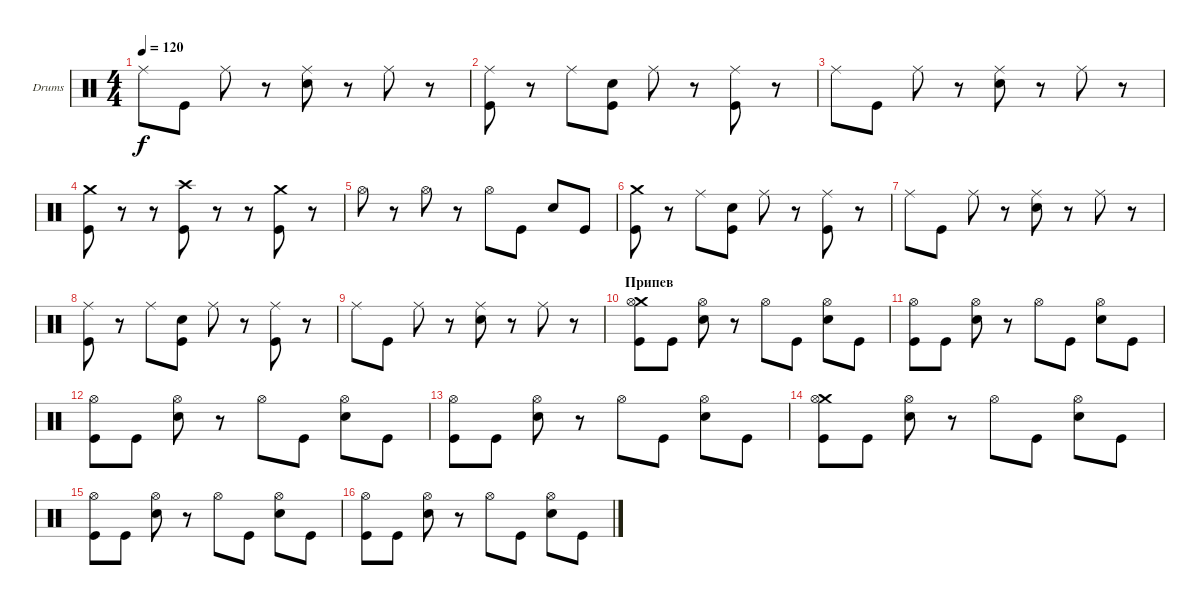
\defaultSystemsLayout 4
\bracketExtendMode groupsimilarinstruments
\firstSystemTrackNameOrientation horizontal
\otherSystemsTrackNameOrientation horizontal
\track ("Drumkit" "Drums") {instrument percussion}
\staff {score}
\articulation defaults
\ts (4 4)
\tempo 120
\clef neutral
\scale
0.333333
\ks c "Ride (middle)".8{dy f} "Kick (hit)".8 "Ride (middle)".8
r.8 ("Ride (middle)" "Snare (hit) 2").8 r.8 "Ride (middle)".8 r.8 |
\scale
0.333333 ("Ride (middle)" "Kick (hit)").8 r.8 "Ride (middle)".8 ("Snare (hit) 2" "Kick (hit)").8 "Ride (middle)".8 r.8 ("Ride (middle)" "Kick (hit)").8 r.8 |
\scale
0.333333 "Ride (middle)".8 "Kick (hit)".8 "Ride (middle)".8 r.8 ("Ride (middle)" "Snare (hit) 2").8 r.8 "Ride (middle)".8 r.8 |
\scale
0.333333 ("Crash medium (hit)" "Kick (hit)").8 r.8 r.8 ("Crash high (hit)" "Kick (hit)").8 r.8 r.8 ("Crash medium (hit)" "Kick (hit)").8 r.8 |
\scale
0.333333 "Hi-Hat (open)".8 r.8 "Hi-Hat (open)".8 r.8 "Hi-Hat (open)".8 "Kick (hit)".8 "Snare (hit) 2".8 "Kick (hit)".8 |
\scale
0.333333 ("Crash medium (hit)" "Kick (hit)").8 r.8 "Ride (middle)".8 ("Snare (hit) 2" "Kick (hit)").8 "Ride (middle)".8 r.8 ("Ride (middle)" "Kick (hit)").8 r.8 |
\scale
0.333333 "Ride (middle)".8 "Kick (hit)".8 "Ride (middle)".8 r.8 ("Ride (middle)" "Snare (hit) 2").8 r.8 "Ride (middle)".8 r.8 |
\scale
0.333333 ("Ride (middle)" "Kick (hit)").8 r.8 "Ride (middle)".8 ("Snare (hit) 2" "Kick (hit)").8 "Ride (middle)".8 r.8 ("Ride (middle)" "Kick (hit)").8 r.8 |
\scale
0.333333 "Ride (middle)".8 "Kick (hit)".8 "Ride (middle)".8 r.8 ("Ride (middle)" "Snare (hit) 2").8 r.8 "Ride (middle)".8 r.8 |
\section ("" "Припев")
\scale
0.333333 ("Crash medium (hit)" "Hi-Hat (open)" "Kick (hit)").8 "Kick (hit)".8 ("Hi-Hat (open)" "Snare (hit) 2").8 r.8 "Hi-Hat (open)".8 "Kick (hit)".8 ("Hi-Hat (open)" "Snare (hit) 2").8 "Kick (hit)".8 |
\scale
0.333333 ("Hi-Hat (open)" "Kick (hit)").8 "Kick (hit)".8 ("Hi-Hat (open)" "Snare (hit) 2").8 r.8 "Hi-Hat (open)".8 "Kick (hit)".8 ("Hi-Hat (open)" "Snare (hit) 2").8 "Kick (hit)".8 |
\scale
0.333333 ("Hi-Hat (open)" "Kick (hit)").8 "Kick (hit)".8 ("Hi-Hat (open)" "Snare (hit) 2").8 r.8 "Hi-Hat (open)".8 "Kick (hit)".8 ("Hi-Hat (open)" "Snare (hit) 2").8 "Kick (hit)".8 |
\scale
0.333333 ("Hi-Hat (open)" "Kick (hit)").8 "Kick (hit)".8 ("Hi-Hat (open)" "Snare (hit) 2").8 r.8 "Hi-Hat (open)".8 "Kick (hit)".8 ("Hi-Hat (open)" "Snare (hit) 2").8 "Kick (hit)".8 |
\scale
0.333333 ("Crash medium (hit)" "Hi-Hat (open)" "Kick (hit)").8 "Kick (hit)".8 ("Hi-Hat (open)" "Snare (hit) 2").8 r.8 "Hi-Hat (open)".8 "Kick (hit)".8 ("Hi-Hat (open)" "Snare (hit) 2").8 "Kick (hit)".8 |
\scale
0.333333 ("Hi-Hat (open)" "Kick (hit)").8 "Kick (hit)".8 ("Hi-Hat (open)" "Snare (hit) 2").8 r.8 "Hi-Hat (open)".8 "Kick (hit)".8 ("Hi-Hat (open)" "Snare (hit) 2").8 "Kick (hit)".8 |
\scale
0.333333 ("Hi-Hat (open)" "Kick (hit)").8 "Kick (hit)".8 ("Hi-Hat (open)" "Snare (hit) 2").8 r.8 "Hi-Hat (open)".8 "Kick (hit)".8 ("Hi-Hat (open)" "Snare (hit) 2").8 "Kick (hit)".8
